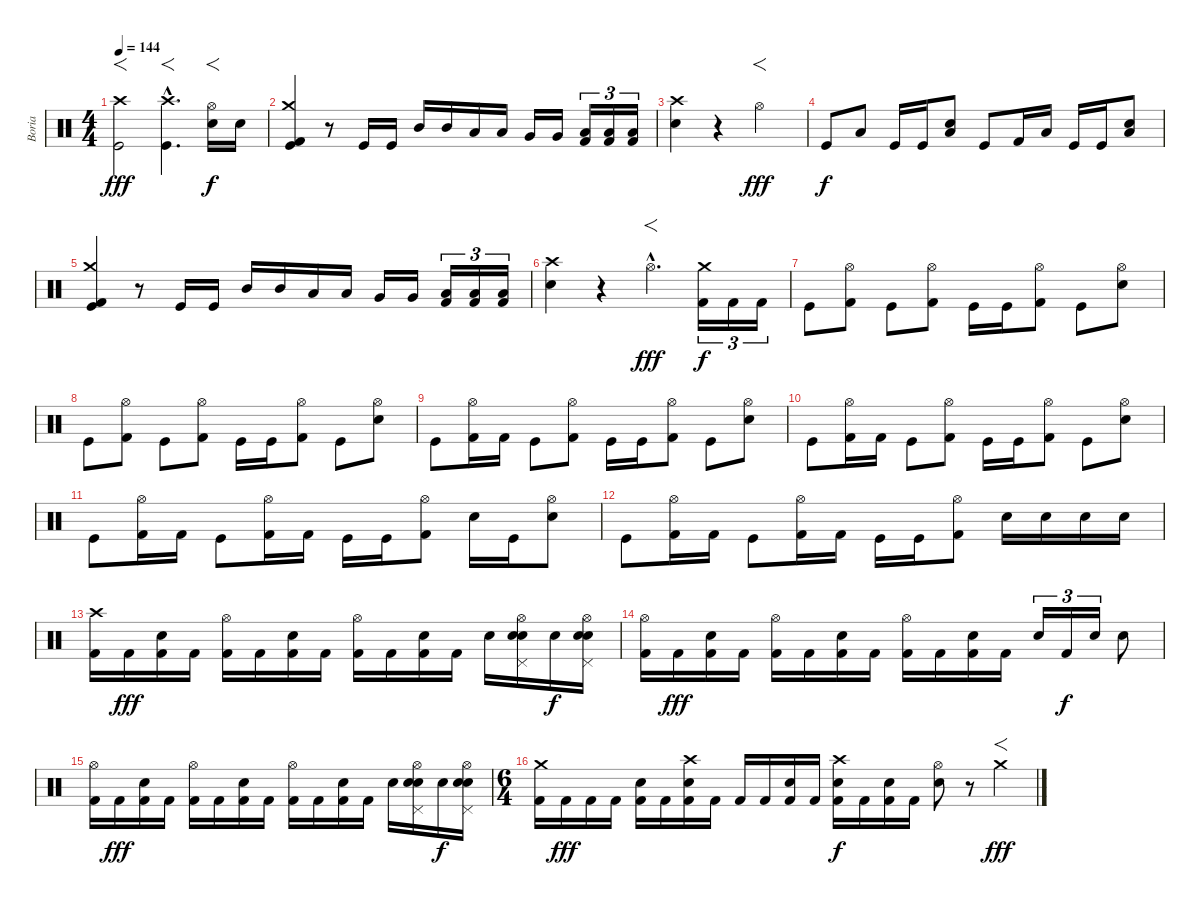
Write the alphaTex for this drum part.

\track ("Boria" "Boria") {instrument percussion}
\staff {score}
\articulation defaults
\ts (4 4)
\tempo 144
\clef neutral
\ks c
("Crash high (hit)" "Kick (hit)").2{f dy fff} ("Crash high (hit)"{hac} "Kick (hit)"{hac}).4{f d} ("Hi-Hat (open)" "Snare (hit) 2").16{f dy f} "Snare (hit) 2".16 |
("Crash medium (hit)" "Kick (hit)" "Kick (hit) 2").4 r.8 "Kick (hit)".16 "Kick (hit)".16 "Mid Tom (hit)".16 "Mid Tom (hit)".16 "Low Tom (hit)".16 "Low Tom (hit)".16 "Very Low Tom (hit)".16 "Very Low Tom (hit)".16 ("Low Floor Tom (hit)" "Kick (hit) 2").16{tu (3 2)} ("Low Floor Tom (hit)" "Kick (hit) 2").16{tu (3 2)} ("Low Floor Tom (hit)" "Kick (hit) 2").16{tu (3 2)} |
("Crash high (hit)" "Snare (hit) 2").4 r.4 "Hi-Hat (open)".2{f dy fff} |
"Kick (hit)".8{dy f} "Low Floor Tom (hit)".8 "Kick (hit)".16 "Kick (hit)".16 ("Low Floor Tom (hit)" "Snare (hit) 2").8 "Kick (hit)".8 "Kick (hit) 2".16 "Low Floor Tom (hit)".16 "Kick (hit)".16 "Kick (hit)".16 ("Low Floor Tom (hit)" "Snare (hit) 2").8 |
("Crash medium (hit)" "Kick (hit)" "Kick (hit) 2").4 r.8 "Kick (hit)".16 "Kick (hit)".16 "Mid Tom (hit)".16 "Mid Tom (hit)".16 "Low Tom (hit)".16 "Low Tom (hit)".16 "Very Low Tom (hit)".16 "Very Low Tom (hit)".16 ("Low Floor Tom (hit)" "Kick (hit) 2").16{tu (3 2)} ("Low Floor Tom (hit)" "Kick (hit) 2").16{tu (3 2)} ("Low Floor Tom (hit)" "Kick (hit) 2").16{tu (3 2)} |
("Crash high (hit)" "Snare (hit) 2").4 r.4 "Hi-Hat (open)"{hac}.4{f d dy fff} ("Crash medium (hit)" "Kick (hit) 2").16{tu (3 2) dy f} "Kick (hit) 2".16{tu (3 2)} "Kick (hit) 2".16{tu (3 2)} |
"Kick (hit)".8 ("Hi-Hat (open)" "Kick (hit) 2").8 "Kick (hit)".8 ("Hi-Hat (open)" "Kick (hit) 2").8 "Kick (hit)".16 "Kick (hit)".16 ("Hi-Hat (open)" "Kick (hit) 2").8 "Kick (hit)".8 ("Hi-Hat (open)" "Snare (hit) 2").8 |
"Kick (hit)".8 ("Hi-Hat (open)" "Kick (hit) 2").8 "Kick (hit)".8 ("Hi-Hat (open)" "Kick (hit) 2").8 "Kick (hit)".16 "Kick (hit)".16 ("Hi-Hat (open)" "Kick (hit) 2").8 "Kick (hit)".8 ("Hi-Hat (open)" "Snare (hit) 2").8 |
"Kick (hit)".8 ("Hi-Hat (open)" "Kick (hit) 2").16 "Kick (hit) 2".16 "Kick (hit)".8 ("Hi-Hat (open)" "Kick (hit) 2").8 "Kick (hit)".16 "Kick (hit)".16 ("Hi-Hat (open)" "Kick (hit) 2").8 "Kick (hit)".8 ("Hi-Hat (open)" "Snare (hit) 2").8 |
"Kick (hit)".8 ("Hi-Hat (open)" "Kick (hit) 2").16 "Kick (hit) 2".16 "Kick (hit)".8 ("Hi-Hat (open)" "Kick (hit) 2").8 "Kick (hit)".16 "Kick (hit)".16 ("Hi-Hat (open)" "Kick (hit) 2").8 "Kick (hit)".8 ("Hi-Hat (open)" "Snare (hit) 2").8 |
"Kick (hit)".8 ("Hi-Hat (open)" "Kick (hit) 2").16 "Kick (hit) 2".16 "Kick (hit)".8 ("Hi-Hat (open)" "Kick (hit) 2").16 "Kick (hit) 2".16 "Kick (hit)".16 "Kick (hit)".16 ("Hi-Hat (open)" "Kick (hit) 2").8 "Snare (hit) 2".16 "Kick (hit)".16 ("Hi-Hat (open)" "Snare (hit) 2").8 |
"Kick (hit)".8 ("Hi-Hat (open)" "Kick (hit) 2").16 "Kick (hit) 2".16 "Kick (hit)".8 ("Hi-Hat (open)" "Kick (hit) 2").16 "Kick (hit) 2".16 "Kick (hit)".16 "Kick (hit)".16 ("Hi-Hat (open)" "Kick (hit) 2").8 "Snare (hit) 2".16 "Snare (hit) 2".16 "Snare (hit) 2".16 "Snare (hit) 2".16 |
("Crash high (hit)" "Kick (hit) 2").16 "Kick (hit) 2".16{dy fff} ("Snare (hit) 2" "Kick (hit) 2").16 "Kick (hit) 2".16 ("Hi-Hat (open)" "Kick (hit) 2").16 "Kick (hit) 2".16 ("Snare (hit) 2" "Kick (hit) 2").16 "Kick (hit) 2".16 ("Hi-Hat (open)" "Kick (hit) 2").16 "Kick (hit) 2".16 ("Snare (hit) 2" "Kick (hit) 2").16 "Kick (hit) 2".16 "Snare (hit) 2".16 ("Pedal Hi-Hat (hit)" "Hi-Hat (open)" "Electric Snare (hit)" "Snare (hit) 2").16 "Snare (hit) 2".16{dy f} ("Pedal Hi-Hat (hit)" "Hi-Hat (open)" "Electric Snare (hit)" "Snare (hit) 2").16 |
("Hi-Hat (open)" "Kick (hit) 2").16 "Kick (hit) 2".16{dy fff} ("Snare (hit) 2" "Kick (hit) 2").16 "Kick (hit) 2".16 ("Hi-Hat (open)" "Kick (hit) 2").16 "Kick (hit) 2".16 ("Snare (hit) 2" "Kick (hit) 2").16 "Kick (hit) 2".16 ("Hi-Hat (open)" "Kick (hit) 2").16 "Kick (hit) 2".16 ("Snare (hit) 2" "Kick (hit) 2").16 "Kick (hit) 2".16 "Snare (hit) 2".16{tu (3 2)} "Kick (hit) 2".16{tu (3 2) dy f} "Snare (hit) 2".16{tu (3 2)} "Electric Snare (hit)".8 |
("Hi-Hat (open)" "Kick (hit) 2").16 "Kick (hit) 2".16{dy fff} ("Snare (hit) 2" "Kick (hit) 2").16 "Kick (hit) 2".16 ("Hi-Hat (open)" "Kick (hit) 2").16 "Kick (hit) 2".16 ("Snare (hit) 2" "Kick (hit) 2").16 "Kick (hit) 2".16 ("Hi-Hat (open)" "Kick (hit) 2").16 "Kick (hit) 2".16 ("Snare (hit) 2" "Kick (hit) 2").16 "Kick (hit) 2".16 "Snare (hit) 2".16 ("Pedal Hi-Hat (hit)" "Hi-Hat (open)" "Electric Snare (hit)" "Snare (hit) 2").16 "Snare (hit) 2".16{dy f} ("Pedal Hi-Hat (hit)" "Hi-Hat (open)" "Electric Snare (hit)" "Snare (hit) 2").16 |
\ts (6 4)
("Crash medium (hit)" "Kick (hit) 2").16 "Kick (hit) 2".16{dy fff} "Kick (hit) 2".16 "Kick (hit) 2".16 ("Snare (hit) 2" "Kick (hit) 2").16 "Kick (hit) 2".16 ("Crash high (hit)" "Electric Snare (hit)" "Kick (hit) 2").16 "Kick (hit) 2".16 "Kick (hit) 2".16 "Kick (hit) 2".16 ("Snare (hit) 2" "Kick (hit) 2").16 "Kick (hit) 2".16 ("Crash high (hit)" "Electric Snare (hit)" "Kick (hit) 2").16{dy f} "Kick (hit) 2".16 ("Snare (hit) 2" "Kick (hit) 2").16 "Kick (hit) 2".16 ("Hi-Hat (open)" "Electric Snare (hit)").8 r.8 "Crash medium (hit)".4{f dy fff}
